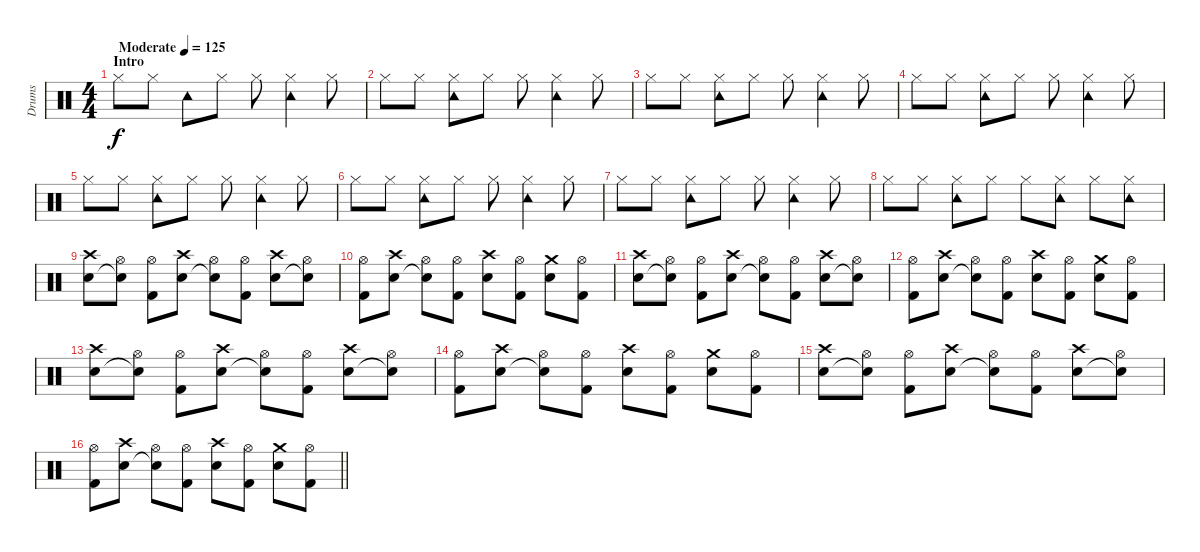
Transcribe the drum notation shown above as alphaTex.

\track ("Drums" "Drums") {instrument percussion}
\staff {score}
\articulation defaults
\ts (4 4)
\section ("" "Intro")
\tempo (125 "Moderate")
\clef neutral
\ks c "Hi-Hat (closed)".8{dy f} "Hi-Hat (closed)".8 "Tambourine (hit)".8 "Hi-Hat (closed)".8 "Hi-Hat (closed)".8
("Hi-Hat (closed)" "Tambourine (hit)").4 "Hi-Hat (closed)".8 |
"Hi-Hat (closed)".8 "Hi-Hat (closed)".8 ("Hi-Hat (closed)" "Tambourine (hit)").8 "Hi-Hat (closed)".8 "Hi-Hat (closed)".8 ("Hi-Hat (closed)" "Tambourine (hit)").4 "Hi-Hat (closed)".8 |
"Hi-Hat (closed)".8 "Hi-Hat (closed)".8 ("Hi-Hat (closed)" "Tambourine (hit)").8 "Hi-Hat (closed)".8 "Hi-Hat (closed)".8 ("Hi-Hat (closed)" "Tambourine (hit)").4 "Hi-Hat (closed)".8 |
"Hi-Hat (closed)".8 "Hi-Hat (closed)".8 ("Hi-Hat (closed)" "Tambourine (hit)").8 "Hi-Hat (closed)".8 "Hi-Hat (closed)".8 ("Hi-Hat (closed)" "Tambourine (hit)").4 "Hi-Hat (closed)".8 |
"Hi-Hat (closed)".8 "Hi-Hat (closed)".8 ("Hi-Hat (closed)" "Tambourine (hit)").8 "Hi-Hat (closed)".8 "Hi-Hat (closed)".8 ("Hi-Hat (closed)" "Tambourine (hit)").4 "Hi-Hat (closed)".8 |
"Hi-Hat (closed)".8 "Hi-Hat (closed)".8 ("Hi-Hat (closed)" "Tambourine (hit)").8 "Hi-Hat (closed)".8 "Hi-Hat (closed)".8 ("Hi-Hat (closed)" "Tambourine (hit)").4 "Hi-Hat (closed)".8 |
"Hi-Hat (closed)".8 "Hi-Hat (closed)".8 ("Hi-Hat (closed)" "Tambourine (hit)").8 "Hi-Hat (closed)".8 "Hi-Hat (closed)".8 ("Hi-Hat (closed)" "Tambourine (hit)").4 "Hi-Hat (closed)".8 |
"Hi-Hat (closed)".8 "Hi-Hat (closed)".8 ("Hi-Hat (closed)" "Tambourine (hit)").8 "Hi-Hat (closed)".8 "Hi-Hat (closed)".8 ("Hi-Hat (closed)" "Tambourine (hit)").8 "Hi-Hat (closed)".8 ("Hi-Hat (closed)" "Tambourine (hit)").8 |
("Crash high (hit)" "Snare (hit) 2").8 ("Hi-Hat (open)" "Snare (hit) 2"{t}).8 ("Hi-Hat (open)" "Kick (hit) 2").8 ("Crash high (hit)" "Snare (hit) 2").8 ("Hi-Hat (open)" "Snare (hit) 2"{t}).8 ("Hi-Hat (open)" "Kick (hit) 2").8 ("Crash high (hit)" "Snare (hit) 2").8 ("Hi-Hat (open)" "Snare (hit) 2"{t}).8 |
("Hi-Hat (open)" "Kick (hit) 2").8 ("Crash high (hit)" "Snare (hit) 2").8 ("Hi-Hat (open)" "Snare (hit) 2"{t}).8 ("Hi-Hat (open)" "Kick (hit) 2").8 ("Crash high (hit)" "Snare (hit) 2").8 ("Hi-Hat (open)" "Kick (hit) 2").8 ("Crash medium (hit)" "Snare (hit) 2").8 ("Hi-Hat (open)" "Kick (hit) 2").8 |
("Crash high (hit)" "Snare (hit) 2").8 ("Hi-Hat (open)" "Snare (hit) 2"{t}).8 ("Hi-Hat (open)" "Kick (hit) 2").8 ("Crash high (hit)" "Snare (hit) 2").8 ("Hi-Hat (open)" "Snare (hit) 2"{t}).8 ("Hi-Hat (open)" "Kick (hit) 2").8 ("Crash high (hit)" "Snare (hit) 2").8 ("Hi-Hat (open)" "Snare (hit) 2"{t}).8 |
("Hi-Hat (open)" "Kick (hit) 2").8 ("Crash high (hit)" "Snare (hit) 2").8 ("Hi-Hat (open)" "Snare (hit) 2"{t}).8 ("Hi-Hat (open)" "Kick (hit) 2").8 ("Crash high (hit)" "Snare (hit) 2").8 ("Hi-Hat (open)" "Kick (hit) 2").8 ("Crash medium (hit)" "Snare (hit) 2").8 ("Hi-Hat (open)" "Kick (hit) 2").8 |
("Crash high (hit)" "Snare (hit) 2").8 ("Hi-Hat (open)" "Snare (hit) 2"{t}).8 ("Hi-Hat (open)" "Kick (hit) 2").8 ("Crash high (hit)" "Snare (hit) 2").8 ("Hi-Hat (open)" "Snare (hit) 2"{t}).8 ("Hi-Hat (open)" "Kick (hit) 2").8 ("Crash high (hit)" "Snare (hit) 2").8 ("Hi-Hat (open)" "Snare (hit) 2"{t}).8 |
("Hi-Hat (open)" "Kick (hit) 2").8 ("Crash high (hit)" "Snare (hit) 2").8 ("Hi-Hat (open)" "Snare (hit) 2"{t}).8 ("Hi-Hat (open)" "Kick (hit) 2").8 ("Crash high (hit)" "Snare (hit) 2").8 ("Hi-Hat (open)" "Kick (hit) 2").8 ("Crash medium (hit)" "Snare (hit) 2").8 ("Hi-Hat (open)" "Kick (hit) 2").8 |
("Crash high (hit)" "Snare (hit) 2").8 ("Hi-Hat (open)" "Snare (hit) 2"{t}).8 ("Hi-Hat (open)" "Kick (hit) 2").8 ("Crash high (hit)" "Snare (hit) 2").8 ("Hi-Hat (open)" "Snare (hit) 2"{t}).8 ("Hi-Hat (open)" "Kick (hit) 2").8 ("Crash high (hit)" "Snare (hit) 2").8 ("Hi-Hat (open)" "Snare (hit) 2"{t}).8 |
\barLineRight lightlight
("Hi-Hat (open)" "Kick (hit) 2").8 ("Crash high (hit)" "Snare (hit) 2").8 ("Hi-Hat (open)" "Snare (hit) 2"{t}).8 ("Hi-Hat (open)" "Kick (hit) 2").8 ("Crash high (hit)" "Snare (hit) 2").8 ("Hi-Hat (open)" "Kick (hit) 2").8 ("Crash medium (hit)" "Snare (hit) 2").8 ("Hi-Hat (open)" "Kick (hit) 2").8
